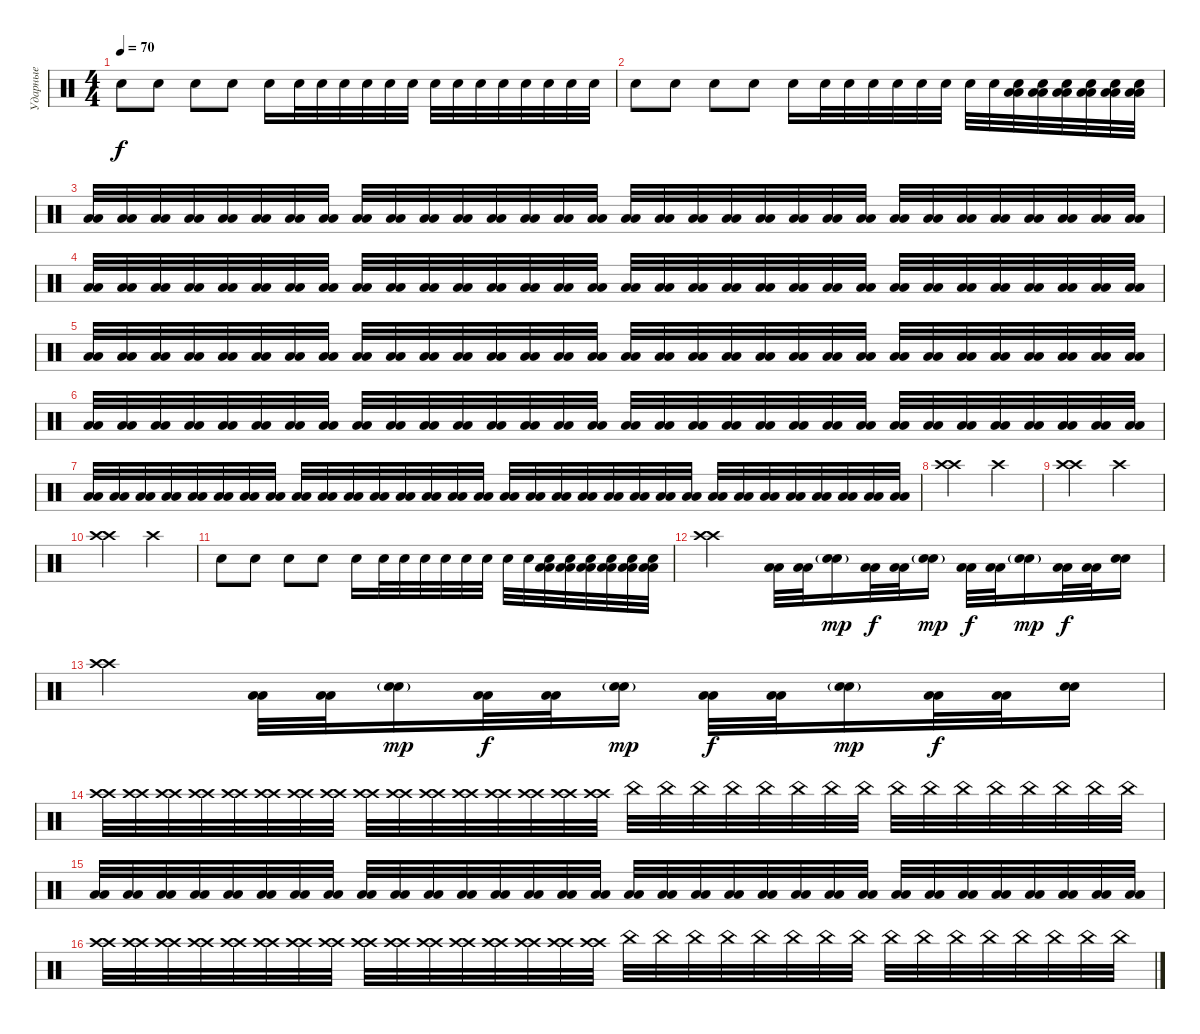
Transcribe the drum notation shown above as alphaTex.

\track ("Ударные" "Ударные") {instrument percussion}
\staff {score}
\articulation defaults
\ts (4 4)
\tempo 70
\clef neutral
\ks c "Electric Snare (hit)".8{dy f} "Electric Snare (hit)".8 "Electric Snare (hit)".8 "Electric Snare (hit)".8 "Electric Snare (hit)".16 "Electric Snare (hit)".32 "Electric Snare (hit)".32 "Electric Snare (hit)".32 "Electric Snare (hit)".32 "Electric Snare (hit)".32 "Electric Snare (hit)".32 "Electric Snare (hit)".32 "Electric Snare (hit)".32 "Electric Snare (hit)".32 "Electric Snare (hit)".32 "Electric Snare (hit)".32 "Electric Snare (hit)".32 "Electric Snare (hit)".32 "Electric Snare (hit)".32
|
"Electric Snare (hit)".8 "Electric Snare (hit)".8 "Electric Snare (hit)".8 "Electric Snare (hit)".8 "Electric Snare (hit)".16 "Electric Snare (hit)".32 "Electric Snare (hit)".32 "Electric Snare (hit)".32 "Electric Snare (hit)".32 "Electric Snare (hit)".32 "Electric Snare (hit)".32 "Electric Snare (hit)".32 "Electric Snare (hit)".32 ("Electric Snare (hit)" "Low Floor Tom (hit)" "Low Floor Tom (hit)").32 ("Electric Snare (hit)" "Low Floor Tom (hit)" "Low Floor Tom (hit)").32 ("Electric Snare (hit)" "Low Floor Tom (hit)" "Low Floor Tom (hit)").32 ("Electric Snare (hit)" "Low Floor Tom (hit)" "Low Floor Tom (hit)").32 ("Electric Snare (hit)" "Low Floor Tom (hit)" "Low Floor Tom (hit)").32 ("Electric Snare (hit)" "Low Floor Tom (hit)" "Low Floor Tom (hit)").32 |
("Low Floor Tom (hit)" "Low Floor Tom (hit)").32 ("Low Floor Tom (hit)" "Low Floor Tom (hit)").32 ("Low Floor Tom (hit)" "Low Floor Tom (hit)").32 ("Low Floor Tom (hit)" "Low Floor Tom (hit)").32 ("Low Floor Tom (hit)" "Low Floor Tom (hit)").32 ("Low Floor Tom (hit)" "Low Floor Tom (hit)").32 ("Low Floor Tom (hit)" "Low Floor Tom (hit)").32 ("Low Floor Tom (hit)" "Low Floor Tom (hit)").32 ("Low Floor Tom (hit)" "Low Floor Tom (hit)").32 ("Low Floor Tom (hit)" "Low Floor Tom (hit)").32 ("Low Floor Tom (hit)" "Low Floor Tom (hit)").32 ("Low Floor Tom (hit)" "Low Floor Tom (hit)").32 ("Low Floor Tom (hit)" "Low Floor Tom (hit)").32 ("Low Floor Tom (hit)" "Low Floor Tom (hit)").32 ("Low Floor Tom (hit)" "Low Floor Tom (hit)").32 ("Low Floor Tom (hit)" "Low Floor Tom (hit)").32 ("Low Floor Tom (hit)" "Low Floor Tom (hit)").32 ("Low Floor Tom (hit)" "Low Floor Tom (hit)").32 ("Low Floor Tom (hit)" "Low Floor Tom (hit)").32 ("Low Floor Tom (hit)" "Low Floor Tom (hit)").32 ("Low Floor Tom (hit)" "Low Floor Tom (hit)").32 ("Low Floor Tom (hit)" "Low Floor Tom (hit)").32 ("Low Floor Tom (hit)" "Low Floor Tom (hit)").32 ("Low Floor Tom (hit)" "Low Floor Tom (hit)").32 ("Low Floor Tom (hit)" "Low Floor Tom (hit)").32 ("Low Floor Tom (hit)" "Low Floor Tom (hit)").32 ("Low Floor Tom (hit)" "Low Floor Tom (hit)").32 ("Low Floor Tom (hit)" "Low Floor Tom (hit)").32 ("Low Floor Tom (hit)" "Low Floor Tom (hit)").32 ("Low Floor Tom (hit)" "Low Floor Tom (hit)").32 ("Low Floor Tom (hit)" "Low Floor Tom (hit)").32 ("Low Floor Tom (hit)" "Low Floor Tom (hit)").32 |
("Low Floor Tom (hit)" "Low Floor Tom (hit)").32 ("Low Floor Tom (hit)" "Low Floor Tom (hit)").32 ("Low Floor Tom (hit)" "Low Floor Tom (hit)").32 ("Low Floor Tom (hit)" "Low Floor Tom (hit)").32 ("Low Floor Tom (hit)" "Low Floor Tom (hit)").32 ("Low Floor Tom (hit)" "Low Floor Tom (hit)").32 ("Low Floor Tom (hit)" "Low Floor Tom (hit)").32 ("Low Floor Tom (hit)" "Low Floor Tom (hit)").32 ("Low Floor Tom (hit)" "Low Floor Tom (hit)").32 ("Low Floor Tom (hit)" "Low Floor Tom (hit)").32 ("Low Floor Tom (hit)" "Low Floor Tom (hit)").32 ("Low Floor Tom (hit)" "Low Floor Tom (hit)").32 ("Low Floor Tom (hit)" "Low Floor Tom (hit)").32 ("Low Floor Tom (hit)" "Low Floor Tom (hit)").32 ("Low Floor Tom (hit)" "Low Floor Tom (hit)").32 ("Low Floor Tom (hit)" "Low Floor Tom (hit)").32 ("Low Floor Tom (hit)" "Low Floor Tom (hit)").32 ("Low Floor Tom (hit)" "Low Floor Tom (hit)").32 ("Low Floor Tom (hit)" "Low Floor Tom (hit)").32 ("Low Floor Tom (hit)" "Low Floor Tom (hit)").32 ("Low Floor Tom (hit)" "Low Floor Tom (hit)").32 ("Low Floor Tom (hit)" "Low Floor Tom (hit)").32 ("Low Floor Tom (hit)" "Low Floor Tom (hit)").32 ("Low Floor Tom (hit)" "Low Floor Tom (hit)").32 ("Low Floor Tom (hit)" "Low Floor Tom (hit)").32 ("Low Floor Tom (hit)" "Low Floor Tom (hit)").32 ("Low Floor Tom (hit)" "Low Floor Tom (hit)").32 ("Low Floor Tom (hit)" "Low Floor Tom (hit)").32 ("Low Floor Tom (hit)" "Low Floor Tom (hit)").32 ("Low Floor Tom (hit)" "Low Floor Tom (hit)").32 ("Low Floor Tom (hit)" "Low Floor Tom (hit)").32 ("Low Floor Tom (hit)" "Low Floor Tom (hit)").32 |
("Low Floor Tom (hit)" "Low Floor Tom (hit)").32 ("Low Floor Tom (hit)" "Low Floor Tom (hit)").32 ("Low Floor Tom (hit)" "Low Floor Tom (hit)").32 ("Low Floor Tom (hit)" "Low Floor Tom (hit)").32 ("Low Floor Tom (hit)" "Low Floor Tom (hit)").32 ("Low Floor Tom (hit)" "Low Floor Tom (hit)").32 ("Low Floor Tom (hit)" "Low Floor Tom (hit)").32 ("Low Floor Tom (hit)" "Low Floor Tom (hit)").32 ("Low Floor Tom (hit)" "Low Floor Tom (hit)").32 ("Low Floor Tom (hit)" "Low Floor Tom (hit)").32 ("Low Floor Tom (hit)" "Low Floor Tom (hit)").32 ("Low Floor Tom (hit)" "Low Floor Tom (hit)").32 ("Low Floor Tom (hit)" "Low Floor Tom (hit)").32 ("Low Floor Tom (hit)" "Low Floor Tom (hit)").32 ("Low Floor Tom (hit)" "Low Floor Tom (hit)").32 ("Low Floor Tom (hit)" "Low Floor Tom (hit)").32 ("Low Floor Tom (hit)" "Low Floor Tom (hit)").32 ("Low Floor Tom (hit)" "Low Floor Tom (hit)").32 ("Low Floor Tom (hit)" "Low Floor Tom (hit)").32 ("Low Floor Tom (hit)" "Low Floor Tom (hit)").32 ("Low Floor Tom (hit)" "Low Floor Tom (hit)").32 ("Low Floor Tom (hit)" "Low Floor Tom (hit)").32 ("Low Floor Tom (hit)" "Low Floor Tom (hit)").32 ("Low Floor Tom (hit)" "Low Floor Tom (hit)").32 ("Low Floor Tom (hit)" "Low Floor Tom (hit)").32 ("Low Floor Tom (hit)" "Low Floor Tom (hit)").32 ("Low Floor Tom (hit)" "Low Floor Tom (hit)").32 ("Low Floor Tom (hit)" "Low Floor Tom (hit)").32 ("Low Floor Tom (hit)" "Low Floor Tom (hit)").32 ("Low Floor Tom (hit)" "Low Floor Tom (hit)").32 ("Low Floor Tom (hit)" "Low Floor Tom (hit)").32 ("Low Floor Tom (hit)" "Low Floor Tom (hit)").32 |
("Low Floor Tom (hit)" "Low Floor Tom (hit)").32 ("Low Floor Tom (hit)" "Low Floor Tom (hit)").32 ("Low Floor Tom (hit)" "Low Floor Tom (hit)").32 ("Low Floor Tom (hit)" "Low Floor Tom (hit)").32 ("Low Floor Tom (hit)" "Low Floor Tom (hit)").32 ("Low Floor Tom (hit)" "Low Floor Tom (hit)").32 ("Low Floor Tom (hit)" "Low Floor Tom (hit)").32 ("Low Floor Tom (hit)" "Low Floor Tom (hit)").32 ("Low Floor Tom (hit)" "Low Floor Tom (hit)").32 ("Low Floor Tom (hit)" "Low Floor Tom (hit)").32 ("Low Floor Tom (hit)" "Low Floor Tom (hit)").32 ("Low Floor Tom (hit)" "Low Floor Tom (hit)").32 ("Low Floor Tom (hit)" "Low Floor Tom (hit)").32 ("Low Floor Tom (hit)" "Low Floor Tom (hit)").32 ("Low Floor Tom (hit)" "Low Floor Tom (hit)").32 ("Low Floor Tom (hit)" "Low Floor Tom (hit)").32 ("Low Floor Tom (hit)" "Low Floor Tom (hit)").32 ("Low Floor Tom (hit)" "Low Floor Tom (hit)").32 ("Low Floor Tom (hit)" "Low Floor Tom (hit)").32 ("Low Floor Tom (hit)" "Low Floor Tom (hit)").32 ("Low Floor Tom (hit)" "Low Floor Tom (hit)").32 ("Low Floor Tom (hit)" "Low Floor Tom (hit)").32 ("Low Floor Tom (hit)" "Low Floor Tom (hit)").32 ("Low Floor Tom (hit)" "Low Floor Tom (hit)").32 ("Low Floor Tom (hit)" "Low Floor Tom (hit)").32 ("Low Floor Tom (hit)" "Low Floor Tom (hit)").32 ("Low Floor Tom (hit)" "Low Floor Tom (hit)").32 ("Low Floor Tom (hit)" "Low Floor Tom (hit)").32 ("Low Floor Tom (hit)" "Low Floor Tom (hit)").32 ("Low Floor Tom (hit)" "Low Floor Tom (hit)").32 ("Low Floor Tom (hit)" "Low Floor Tom (hit)").32 ("Low Floor Tom (hit)" "Low Floor Tom (hit)").32 |
("Low Floor Tom (hit)" "Low Floor Tom (hit)").32 ("Low Floor Tom (hit)" "Low Floor Tom (hit)").32 ("Low Floor Tom (hit)" "Low Floor Tom (hit)").32 ("Low Floor Tom (hit)" "Low Floor Tom (hit)").32 ("Low Floor Tom (hit)" "Low Floor Tom (hit)").32 ("Low Floor Tom (hit)" "Low Floor Tom (hit)").32 ("Low Floor Tom (hit)" "Low Floor Tom (hit)").32 ("Low Floor Tom (hit)" "Low Floor Tom (hit)").32 ("Low Floor Tom (hit)" "Low Floor Tom (hit)").32 ("Low Floor Tom (hit)" "Low Floor Tom (hit)").32 ("Low Floor Tom (hit)" "Low Floor Tom (hit)").32 ("Low Floor Tom (hit)" "Low Floor Tom (hit)").32 ("Low Floor Tom (hit)" "Low Floor Tom (hit)").32 ("Low Floor Tom (hit)" "Low Floor Tom (hit)").32 ("Low Floor Tom (hit)" "Low Floor Tom (hit)").32 ("Low Floor Tom (hit)" "Low Floor Tom (hit)").32 ("Low Floor Tom (hit)" "Low Floor Tom (hit)").32 ("Low Floor Tom (hit)" "Low Floor Tom (hit)").32 ("Low Floor Tom (hit)" "Low Floor Tom (hit)").32 ("Low Floor Tom (hit)" "Low Floor Tom (hit)").32 ("Low Floor Tom (hit)" "Low Floor Tom (hit)").32 ("Low Floor Tom (hit)" "Low Floor Tom (hit)").32 ("Low Floor Tom (hit)" "Low Floor Tom (hit)").32 ("Low Floor Tom (hit)" "Low Floor Tom (hit)").32 ("Low Floor Tom (hit)" "Low Floor Tom (hit)").32 ("Low Floor Tom (hit)" "Low Floor Tom (hit)").32 ("Low Floor Tom (hit)" "Low Floor Tom (hit)").32 ("Low Floor Tom (hit)" "Low Floor Tom (hit)").32 ("Low Floor Tom (hit)" "Low Floor Tom (hit)").32 ("Low Floor Tom (hit)" "Low Floor Tom (hit)").32 ("Low Floor Tom (hit)" "Low Floor Tom (hit)").32 ("Low Floor Tom (hit)" "Low Floor Tom (hit)").32 |
("Crash high (hit)" "Crash high (hit)").2 "Crash high (hit)".2 |
("Crash high (hit)" "Crash high (hit)").2 "Crash high (hit)".2 |
("Crash high (hit)" "Crash high (hit)").2 "Crash high (hit)".2 |
"Electric Snare (hit)".8 "Electric Snare (hit)".8 "Electric Snare (hit)".8 "Electric Snare (hit)".8 "Electric Snare (hit)".16 "Electric Snare (hit)".32 "Electric Snare (hit)".32 "Electric Snare (hit)".32 "Electric Snare (hit)".32 "Electric Snare (hit)".32 "Electric Snare (hit)".32 "Electric Snare (hit)".32 "Electric Snare (hit)".32 ("Electric Snare (hit)" "Low Floor Tom (hit)" "Low Floor Tom (hit)").32 ("Electric Snare (hit)" "Low Floor Tom (hit)" "Low Floor Tom (hit)").32 ("Electric Snare (hit)" "Low Floor Tom (hit)" "Low Floor Tom (hit)").32 ("Electric Snare (hit)" "Low Floor Tom (hit)" "Low Floor Tom (hit)").32 ("Electric Snare (hit)" "Low Floor Tom (hit)" "Low Floor Tom (hit)").32 ("Electric Snare (hit)" "Low Floor Tom (hit)" "Low Floor Tom (hit)").32 |
("Crash high (hit)" "Crash high (hit)").2 ("Low Floor Tom (hit)" "Low Floor Tom (hit)").32 ("Low Floor Tom (hit)" "Low Floor Tom (hit)").32 ("Electric Snare (hit)"{g} "Electric Snare (hit)"{g}).16{dy mp} ("Low Floor Tom (hit)" "Low Floor Tom (hit)").32{dy f} ("Low Floor Tom (hit)" "Low Floor Tom (hit)").32 ("Electric Snare (hit)"{g} "Electric Snare (hit)"{g}).16{dy mp} ("Low Floor Tom (hit)" "Low Floor Tom (hit)").32{dy f} ("Low Floor Tom (hit)" "Low Floor Tom (hit)").32 ("Electric Snare (hit)"{g} "Electric Snare (hit)"{g}).16{dy mp} ("Low Floor Tom (hit)" "Low Floor Tom (hit)").32{dy f} ("Low Floor Tom (hit)" "Low Floor Tom (hit)").32 ("Electric Snare (hit)" "Electric Snare (hit)").16 |
("Crash high (hit)" "Crash high (hit)").2 ("Low Floor Tom (hit)" "Low Floor Tom (hit)").32 ("Low Floor Tom (hit)" "Low Floor Tom (hit)").32 ("Electric Snare (hit)"{g} "Electric Snare (hit)"{g}).16{dy mp} ("Low Floor Tom (hit)" "Low Floor Tom (hit)").32{dy f} ("Low Floor Tom (hit)" "Low Floor Tom (hit)").32 ("Electric Snare (hit)"{g} "Electric Snare (hit)"{g}).16{dy mp} ("Low Floor Tom (hit)" "Low Floor Tom (hit)").32{dy f} ("Low Floor Tom (hit)" "Low Floor Tom (hit)").32 ("Electric Snare (hit)"{g} "Electric Snare (hit)"{g}).16{dy mp} ("Low Floor Tom (hit)" "Low Floor Tom (hit)").32{dy f} ("Low Floor Tom (hit)" "Low Floor Tom (hit)").32 ("Electric Snare (hit)" "Electric Snare (hit)").16 |
("Crash high (hit)" "Crash high (hit)").32 ("Crash high (hit)" "Crash high (hit)").32 ("Crash high (hit)" "Crash high (hit)").32 ("Crash high (hit)" "Crash high (hit)").32 ("Crash high (hit)" "Crash high (hit)").32 ("Crash high (hit)" "Crash high (hit)").32 ("Crash high (hit)" "Crash high (hit)").32 ("Crash high (hit)" "Crash high (hit)").32 ("Crash high (hit)" "Crash high (hit)").32 ("Crash high (hit)" "Crash high (hit)").32 ("Crash high (hit)" "Crash high (hit)").32 ("Crash high (hit)" "Crash high (hit)").32 ("Crash high (hit)" "Crash high (hit)").32 ("Crash high (hit)" "Crash high (hit)").32 ("Crash high (hit)" "Crash high (hit)").32 ("Crash high (hit)" "Crash high (hit)").32 "China (hit)".32 "China (hit)".32 "China (hit)".32 "China (hit)".32 "China (hit)".32 "China (hit)".32 "China (hit)".32 "China (hit)".32 "China (hit)".32 "China (hit)".32 "China (hit)".32 "China (hit)".32 "China (hit)".32 "China (hit)".32 "China (hit)".32 "China (hit)".32 |
("Low Floor Tom (hit)" "Low Floor Tom (hit)").32 ("Low Floor Tom (hit)" "Low Floor Tom (hit)").32 ("Low Floor Tom (hit)" "Low Floor Tom (hit)").32 ("Low Floor Tom (hit)" "Low Floor Tom (hit)").32 ("Low Floor Tom (hit)" "Low Floor Tom (hit)").32 ("Low Floor Tom (hit)" "Low Floor Tom (hit)").32 ("Low Floor Tom (hit)" "Low Floor Tom (hit)").32 ("Low Floor Tom (hit)" "Low Floor Tom (hit)").32 ("Low Floor Tom (hit)" "Low Floor Tom (hit)").32 ("Low Floor Tom (hit)" "Low Floor Tom (hit)").32 ("Low Floor Tom (hit)" "Low Floor Tom (hit)").32 ("Low Floor Tom (hit)" "Low Floor Tom (hit)").32 ("Low Floor Tom (hit)" "Low Floor Tom (hit)").32 ("Low Floor Tom (hit)" "Low Floor Tom (hit)").32 ("Low Floor Tom (hit)" "Low Floor Tom (hit)").32 ("Low Floor Tom (hit)" "Low Floor Tom (hit)").32 ("Low Floor Tom (hit)" "Low Floor Tom (hit)").32 ("Low Floor Tom (hit)" "Low Floor Tom (hit)").32 ("Low Floor Tom (hit)" "Low Floor Tom (hit)").32 ("Low Floor Tom (hit)" "Low Floor Tom (hit)").32 ("Low Floor Tom (hit)" "Low Floor Tom (hit)").32 ("Low Floor Tom (hit)" "Low Floor Tom (hit)").32 ("Low Floor Tom (hit)" "Low Floor Tom (hit)").32 ("Low Floor Tom (hit)" "Low Floor Tom (hit)").32 ("Low Floor Tom (hit)" "Low Floor Tom (hit)").32 ("Low Floor Tom (hit)" "Low Floor Tom (hit)").32 ("Low Floor Tom (hit)" "Low Floor Tom (hit)").32 ("Low Floor Tom (hit)" "Low Floor Tom (hit)").32 ("Low Floor Tom (hit)" "Low Floor Tom (hit)").32 ("Low Floor Tom (hit)" "Low Floor Tom (hit)").32 ("Low Floor Tom (hit)" "Low Floor Tom (hit)").32 ("Low Floor Tom (hit)" "Low Floor Tom (hit)").32 |
("Crash high (hit)" "Crash high (hit)").32 ("Crash high (hit)" "Crash high (hit)").32 ("Crash high (hit)" "Crash high (hit)").32 ("Crash high (hit)" "Crash high (hit)").32 ("Crash high (hit)" "Crash high (hit)").32 ("Crash high (hit)" "Crash high (hit)").32 ("Crash high (hit)" "Crash high (hit)").32 ("Crash high (hit)" "Crash high (hit)").32 ("Crash high (hit)" "Crash high (hit)").32 ("Crash high (hit)" "Crash high (hit)").32 ("Crash high (hit)" "Crash high (hit)").32 ("Crash high (hit)" "Crash high (hit)").32 ("Crash high (hit)" "Crash high (hit)").32 ("Crash high (hit)" "Crash high (hit)").32 ("Crash high (hit)" "Crash high (hit)").32 ("Crash high (hit)" "Crash high (hit)").32 "China (hit)".32 "China (hit)".32 "China (hit)".32 "China (hit)".32 "China (hit)".32 "China (hit)".32 "China (hit)".32 "China (hit)".32 "China (hit)".32 "China (hit)".32 "China (hit)".32 "China (hit)".32 "China (hit)".32 "China (hit)".32 "China (hit)".32 "China (hit)".32
